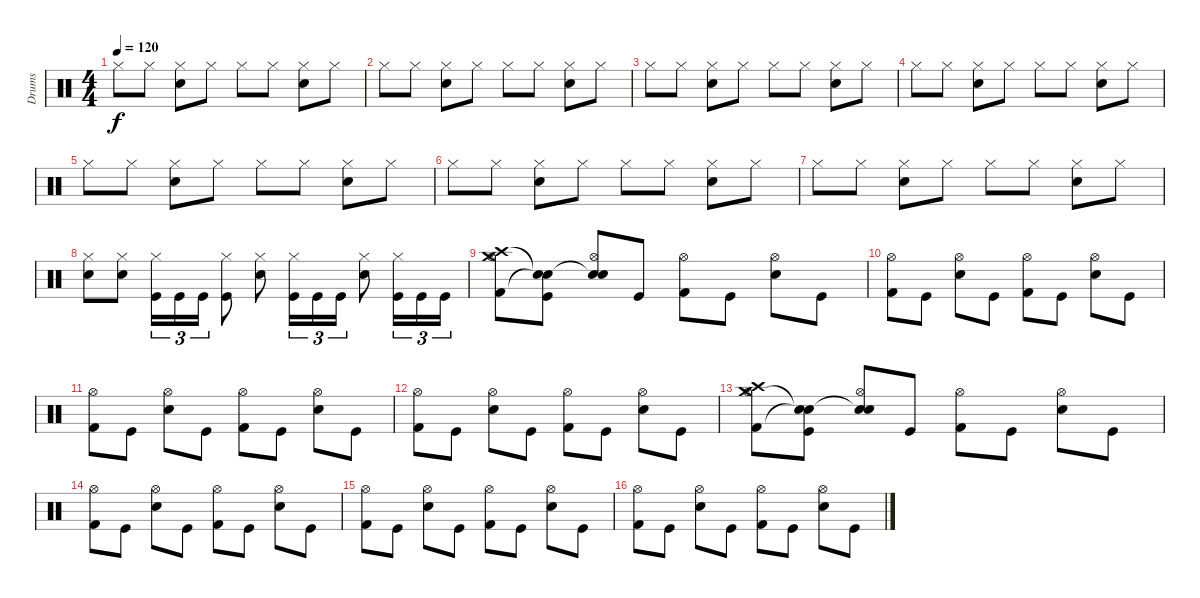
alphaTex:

\track ("Drums" "Drums") {instrument percussion}
\staff {score}
\articulation defaults
\ts (4 4)
\tempo 120
\clef neutral
\ks c "Hi-Hat (closed)".8{dy f volume 2} "Hi-Hat (closed)".8
("Hi-Hat (closed)" "Electric Snare (hit)").8{volume 4} "Hi-Hat (closed)".8 "Hi-Hat (closed)".8{volume 6} "Hi-Hat (closed)".8 ("Hi-Hat (closed)" "Electric Snare (hit)").8{volume 8} "Hi-Hat (closed)".8 |
"Hi-Hat (closed)".8{volume 9} "Hi-Hat (closed)".8 ("Hi-Hat (closed)" "Electric Snare (hit)").8 "Hi-Hat (closed)".8 "Hi-Hat (closed)".8 "Hi-Hat (closed)".8 ("Hi-Hat (closed)" "Electric Snare (hit)").8 "Hi-Hat (closed)".8 |
"Hi-Hat (closed)".8 "Hi-Hat (closed)".8 ("Hi-Hat (closed)" "Electric Snare (hit)").8 "Hi-Hat (closed)".8 "Hi-Hat (closed)".8 "Hi-Hat (closed)".8 ("Hi-Hat (closed)" "Electric Snare (hit)").8 "Hi-Hat (closed)".8 |
"Hi-Hat (closed)".8 "Hi-Hat (closed)".8 ("Hi-Hat (closed)" "Electric Snare (hit)").8 "Hi-Hat (closed)".8 "Hi-Hat (closed)".8 "Hi-Hat (closed)".8 ("Hi-Hat (closed)" "Electric Snare (hit)").8 "Hi-Hat (closed)".8 |
"Hi-Hat (closed)".8 "Hi-Hat (closed)".8 ("Hi-Hat (closed)" "Electric Snare (hit)").8 "Hi-Hat (closed)".8 "Hi-Hat (closed)".8 "Hi-Hat (closed)".8 ("Hi-Hat (closed)" "Electric Snare (hit)").8 "Hi-Hat (closed)".8 |
"Hi-Hat (closed)".8 "Hi-Hat (closed)".8 ("Hi-Hat (closed)" "Electric Snare (hit)").8 "Hi-Hat (closed)".8 "Hi-Hat (closed)".8 "Hi-Hat (closed)".8 ("Hi-Hat (closed)" "Electric Snare (hit)").8 "Hi-Hat (closed)".8 |
"Hi-Hat (closed)".8 "Hi-Hat (closed)".8 ("Hi-Hat (closed)" "Electric Snare (hit)").8 "Hi-Hat (closed)".8 "Hi-Hat (closed)".8 "Hi-Hat (closed)".8 ("Hi-Hat (closed)" "Electric Snare (hit)").8 "Hi-Hat (closed)".8 |
("Hi-Hat (closed)" "Electric Snare (hit)").8 ("Hi-Hat (closed)" "Electric Snare (hit)").8 ("Hi-Hat (closed)" "Kick (hit)").16{tu (3 2)} "Kick (hit)".16{tu (3 2)} "Kick (hit)".16{tu (3 2)} ("Hi-Hat (closed)" "Kick (hit)").8 ("Hi-Hat (closed)" "Electric Snare (hit)").8 ("Hi-Hat (closed)" "Kick (hit)").16{tu (3 2)} "Kick (hit)".16{tu (3 2)} "Kick (hit)".16{tu (3 2)} ("Hi-Hat (closed)" "Electric Snare (hit)").8 ("Hi-Hat (closed)" "Kick (hit)").16{tu (3 2)} "Kick (hit)".16{tu (3 2)} "Kick (hit)".16{tu (3 2)} |
("Hi-Hat (open)" "Kick (hit) 2" "Crash high (hit)" "Crash medium (hit)").8 ("Kick (hit)" "Snare (hit)"{t} "Snare (hit)"{t}).8 ("Hi-Hat (open)" "Electric Snare (hit)" "Snare (hit)"{t}).8 "Kick (hit)".8 ("Hi-Hat (open)" "Kick (hit) 2").8 "Kick (hit)".8 ("Hi-Hat (open)" "Electric Snare (hit)").8 "Kick (hit)".8 |
("Hi-Hat (open)" "Kick (hit) 2").8 "Kick (hit)".8 ("Hi-Hat (open)" "Electric Snare (hit)").8 "Kick (hit)".8 ("Hi-Hat (open)" "Kick (hit) 2").8 "Kick (hit)".8 ("Hi-Hat (open)" "Electric Snare (hit)").8 "Kick (hit)".8 |
("Hi-Hat (open)" "Kick (hit) 2").8 "Kick (hit)".8 ("Hi-Hat (open)" "Electric Snare (hit)").8 "Kick (hit)".8 ("Hi-Hat (open)" "Kick (hit) 2").8 "Kick (hit)".8 ("Hi-Hat (open)" "Electric Snare (hit)").8 "Kick (hit)".8 |
("Hi-Hat (open)" "Kick (hit) 2").8 "Kick (hit)".8 ("Hi-Hat (open)" "Electric Snare (hit)").8 "Kick (hit)".8 ("Hi-Hat (open)" "Kick (hit) 2").8 "Kick (hit)".8 ("Hi-Hat (open)" "Electric Snare (hit)").8 "Kick (hit)".8 |
("Hi-Hat (open)" "Kick (hit) 2" "Crash medium (hit)" "Crash high (hit)").8 ("Kick (hit)" "Snare (hit)"{t} "Snare (hit)"{t}).8 ("Hi-Hat (open)" "Electric Snare (hit)" "Snare (hit)"{t}).8 "Kick (hit)".8 ("Hi-Hat (open)" "Kick (hit) 2").8 "Kick (hit)".8 ("Hi-Hat (open)" "Electric Snare (hit)").8 "Kick (hit)".8 |
("Hi-Hat (open)" "Kick (hit) 2").8 "Kick (hit)".8 ("Hi-Hat (open)" "Electric Snare (hit)").8 "Kick (hit)".8 ("Hi-Hat (open)" "Kick (hit) 2").8 "Kick (hit)".8 ("Hi-Hat (open)" "Electric Snare (hit)").8 "Kick (hit)".8 |
("Hi-Hat (open)" "Kick (hit) 2").8 "Kick (hit)".8 ("Hi-Hat (open)" "Electric Snare (hit)").8 "Kick (hit)".8 ("Hi-Hat (open)" "Kick (hit) 2").8 "Kick (hit)".8 ("Hi-Hat (open)" "Electric Snare (hit)").8 "Kick (hit)".8 |
("Hi-Hat (open)" "Kick (hit) 2").8 "Kick (hit)".8 ("Hi-Hat (open)" "Electric Snare (hit)").8 "Kick (hit)".8 ("Hi-Hat (open)" "Kick (hit) 2").8 "Kick (hit)".8 ("Hi-Hat (open)" "Electric Snare (hit)").8 "Kick (hit)".8
